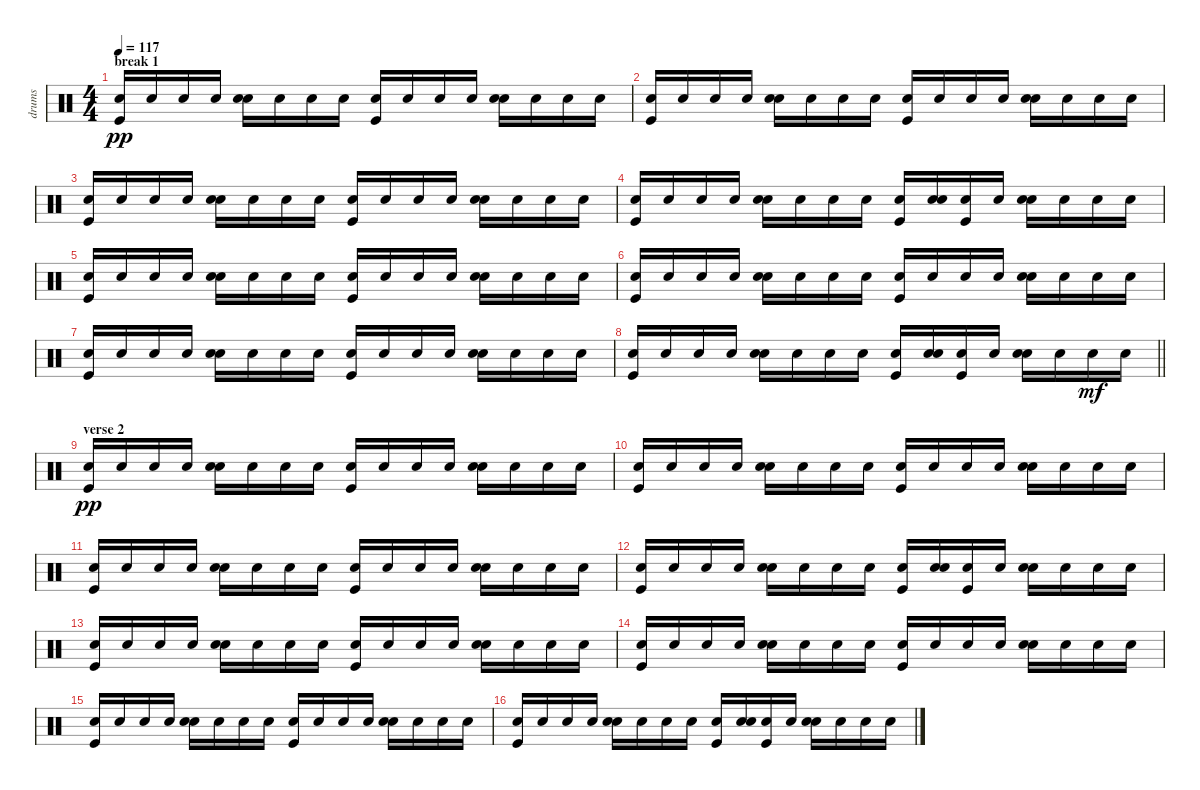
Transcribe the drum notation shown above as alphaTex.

\track ("drums" "drums") {instrument percussion}
\staff {score}
\articulation defaults
\ts (4 4)
\section ("" "break 1")
\tempo 117
\clef neutral
\ks c
("Electric Snare (hit)" "Kick (hit)").16{dy pp} "Electric Snare (hit)".16 "Electric Snare (hit)".16 "Electric Snare (hit)".16 ("Snare (hit) 2" "Electric Snare (hit)").16 "Electric Snare (hit)".16 "Electric Snare (hit)".16 "Electric Snare (hit)".16 ("Electric Snare (hit)" "Kick (hit)").16 "Electric Snare (hit)".16 "Electric Snare (hit)".16 "Electric Snare (hit)".16 ("Snare (hit) 2" "Electric Snare (hit)").16 "Electric Snare (hit)".16 "Electric Snare (hit)".16 "Electric Snare (hit)".16 |
("Electric Snare (hit)" "Kick (hit)").16 "Electric Snare (hit)".16 "Electric Snare (hit)".16 "Electric Snare (hit)".16 ("Snare (hit) 2" "Electric Snare (hit)").16 "Electric Snare (hit)".16 "Electric Snare (hit)".16 "Electric Snare (hit)".16 ("Electric Snare (hit)" "Kick (hit)").16 "Electric Snare (hit)".16 "Electric Snare (hit)".16 "Electric Snare (hit)".16 ("Snare (hit) 2" "Electric Snare (hit)").16 "Electric Snare (hit)".16 "Electric Snare (hit)".16 "Electric Snare (hit)".16 |
("Electric Snare (hit)" "Kick (hit)").16 "Electric Snare (hit)".16 "Electric Snare (hit)".16 "Electric Snare (hit)".16 ("Snare (hit) 2" "Electric Snare (hit)").16 "Electric Snare (hit)".16 "Electric Snare (hit)".16 "Electric Snare (hit)".16 ("Electric Snare (hit)" "Kick (hit)").16 "Electric Snare (hit)".16 "Electric Snare (hit)".16 "Electric Snare (hit)".16 ("Snare (hit) 2" "Electric Snare (hit)").16 "Electric Snare (hit)".16 "Electric Snare (hit)".16 "Electric Snare (hit)".16 |
("Electric Snare (hit)" "Kick (hit)").16 "Electric Snare (hit)".16 "Electric Snare (hit)".16 "Electric Snare (hit)".16 ("Snare (hit) 2" "Electric Snare (hit)").16 "Electric Snare (hit)".16 "Electric Snare (hit)".16 "Electric Snare (hit)".16 ("Electric Snare (hit)" "Kick (hit)").16 ("Snare (hit) 2" "Electric Snare (hit)").16 ("Electric Snare (hit)" "Kick (hit)").16 "Electric Snare (hit)".16 ("Snare (hit) 2" "Electric Snare (hit)").16 "Electric Snare (hit)".16 "Electric Snare (hit)".16 "Electric Snare (hit)".16 |
("Electric Snare (hit)" "Kick (hit)").16 "Electric Snare (hit)".16 "Electric Snare (hit)".16 "Electric Snare (hit)".16 ("Snare (hit) 2" "Electric Snare (hit)").16 "Electric Snare (hit)".16 "Electric Snare (hit)".16 "Electric Snare (hit)".16 ("Electric Snare (hit)" "Kick (hit)").16 "Electric Snare (hit)".16 "Electric Snare (hit)".16 "Electric Snare (hit)".16 ("Snare (hit) 2" "Electric Snare (hit)").16 "Electric Snare (hit)".16 "Electric Snare (hit)".16 "Electric Snare (hit)".16 |
("Electric Snare (hit)" "Kick (hit)").16 "Electric Snare (hit)".16 "Electric Snare (hit)".16 "Electric Snare (hit)".16 ("Snare (hit) 2" "Electric Snare (hit)").16 "Electric Snare (hit)".16 "Electric Snare (hit)".16 "Electric Snare (hit)".16 ("Electric Snare (hit)" "Kick (hit)").16 "Electric Snare (hit)".16 "Electric Snare (hit)".16 "Electric Snare (hit)".16 ("Snare (hit) 2" "Electric Snare (hit)").16 "Electric Snare (hit)".16 "Electric Snare (hit)".16 "Electric Snare (hit)".16 |
("Electric Snare (hit)" "Kick (hit)").16 "Electric Snare (hit)".16 "Electric Snare (hit)".16 "Electric Snare (hit)".16 ("Snare (hit) 2" "Electric Snare (hit)").16 "Electric Snare (hit)".16 "Electric Snare (hit)".16 "Electric Snare (hit)".16 ("Electric Snare (hit)" "Kick (hit)").16 "Electric Snare (hit)".16 "Electric Snare (hit)".16 "Electric Snare (hit)".16 ("Snare (hit) 2" "Electric Snare (hit)").16 "Electric Snare (hit)".16 "Electric Snare (hit)".16 "Electric Snare (hit)".16 |
\barLineRight lightlight
("Electric Snare (hit)" "Kick (hit)").16 "Electric Snare (hit)".16 "Electric Snare (hit)".16 "Electric Snare (hit)".16 ("Snare (hit) 2" "Electric Snare (hit)").16 "Electric Snare (hit)".16 "Electric Snare (hit)".16 "Electric Snare (hit)".16 ("Electric Snare (hit)" "Kick (hit)").16 ("Snare (hit) 2" "Electric Snare (hit)").16 ("Electric Snare (hit)" "Kick (hit)").16 "Electric Snare (hit)".16 ("Snare (hit) 2" "Electric Snare (hit)").16 "Electric Snare (hit)".16 "Electric Snare (hit)".16{dy mf} "Electric Snare (hit)".16 |
\section ("" "verse 2")
("Electric Snare (hit)" "Kick (hit)").16{dy pp} "Electric Snare (hit)".16 "Electric Snare (hit)".16 "Electric Snare (hit)".16 ("Snare (hit) 2" "Electric Snare (hit)").16 "Electric Snare (hit)".16 "Electric Snare (hit)".16 "Electric Snare (hit)".16 ("Electric Snare (hit)" "Kick (hit)").16 "Electric Snare (hit)".16 "Electric Snare (hit)".16 "Electric Snare (hit)".16 ("Snare (hit) 2" "Electric Snare (hit)").16 "Electric Snare (hit)".16 "Electric Snare (hit)".16 "Electric Snare (hit)".16 |
("Electric Snare (hit)" "Kick (hit)").16 "Electric Snare (hit)".16 "Electric Snare (hit)".16 "Electric Snare (hit)".16 ("Snare (hit) 2" "Electric Snare (hit)").16 "Electric Snare (hit)".16 "Electric Snare (hit)".16 "Electric Snare (hit)".16 ("Electric Snare (hit)" "Kick (hit)").16 "Electric Snare (hit)".16 "Electric Snare (hit)".16 "Electric Snare (hit)".16 ("Snare (hit) 2" "Electric Snare (hit)").16 "Electric Snare (hit)".16 "Electric Snare (hit)".16 "Electric Snare (hit)".16 |
("Electric Snare (hit)" "Kick (hit)").16 "Electric Snare (hit)".16 "Electric Snare (hit)".16 "Electric Snare (hit)".16 ("Snare (hit) 2" "Electric Snare (hit)").16 "Electric Snare (hit)".16 "Electric Snare (hit)".16 "Electric Snare (hit)".16 ("Electric Snare (hit)" "Kick (hit)").16 "Electric Snare (hit)".16 "Electric Snare (hit)".16 "Electric Snare (hit)".16 ("Snare (hit) 2" "Electric Snare (hit)").16 "Electric Snare (hit)".16 "Electric Snare (hit)".16 "Electric Snare (hit)".16 |
("Electric Snare (hit)" "Kick (hit)").16 "Electric Snare (hit)".16 "Electric Snare (hit)".16 "Electric Snare (hit)".16 ("Snare (hit) 2" "Electric Snare (hit)").16 "Electric Snare (hit)".16 "Electric Snare (hit)".16 "Electric Snare (hit)".16 ("Electric Snare (hit)" "Kick (hit)").16 ("Snare (hit) 2" "Electric Snare (hit)").16 ("Electric Snare (hit)" "Kick (hit)").16 "Electric Snare (hit)".16 ("Snare (hit) 2" "Electric Snare (hit)").16 "Electric Snare (hit)".16 "Electric Snare (hit)".16 "Electric Snare (hit)".16 |
("Electric Snare (hit)" "Kick (hit)").16 "Electric Snare (hit)".16 "Electric Snare (hit)".16 "Electric Snare (hit)".16 ("Snare (hit) 2" "Electric Snare (hit)").16 "Electric Snare (hit)".16 "Electric Snare (hit)".16 "Electric Snare (hit)".16 ("Electric Snare (hit)" "Kick (hit)").16 "Electric Snare (hit)".16 "Electric Snare (hit)".16 "Electric Snare (hit)".16 ("Snare (hit) 2" "Electric Snare (hit)").16 "Electric Snare (hit)".16 "Electric Snare (hit)".16 "Electric Snare (hit)".16 |
("Electric Snare (hit)" "Kick (hit)").16 "Electric Snare (hit)".16 "Electric Snare (hit)".16 "Electric Snare (hit)".16 ("Snare (hit) 2" "Electric Snare (hit)").16 "Electric Snare (hit)".16 "Electric Snare (hit)".16 "Electric Snare (hit)".16 ("Electric Snare (hit)" "Kick (hit)").16 "Electric Snare (hit)".16 "Electric Snare (hit)".16 "Electric Snare (hit)".16 ("Snare (hit) 2" "Electric Snare (hit)").16 "Electric Snare (hit)".16 "Electric Snare (hit)".16 "Electric Snare (hit)".16 |
("Electric Snare (hit)" "Kick (hit)").16 "Electric Snare (hit)".16 "Electric Snare (hit)".16 "Electric Snare (hit)".16 ("Snare (hit) 2" "Electric Snare (hit)").16 "Electric Snare (hit)".16 "Electric Snare (hit)".16 "Electric Snare (hit)".16 ("Electric Snare (hit)" "Kick (hit)").16 "Electric Snare (hit)".16 "Electric Snare (hit)".16 "Electric Snare (hit)".16 ("Snare (hit) 2" "Electric Snare (hit)").16 "Electric Snare (hit)".16 "Electric Snare (hit)".16 "Electric Snare (hit)".16 |
("Electric Snare (hit)" "Kick (hit)").16 "Electric Snare (hit)".16 "Electric Snare (hit)".16 "Electric Snare (hit)".16 ("Snare (hit) 2" "Electric Snare (hit)").16 "Electric Snare (hit)".16 "Electric Snare (hit)".16 "Electric Snare (hit)".16 ("Electric Snare (hit)" "Kick (hit)").16 ("Snare (hit) 2" "Electric Snare (hit)").16 ("Electric Snare (hit)" "Kick (hit)").16 "Electric Snare (hit)".16 ("Snare (hit) 2" "Electric Snare (hit)").16 "Electric Snare (hit)".16 "Electric Snare (hit)".16 "Electric Snare (hit)".16
